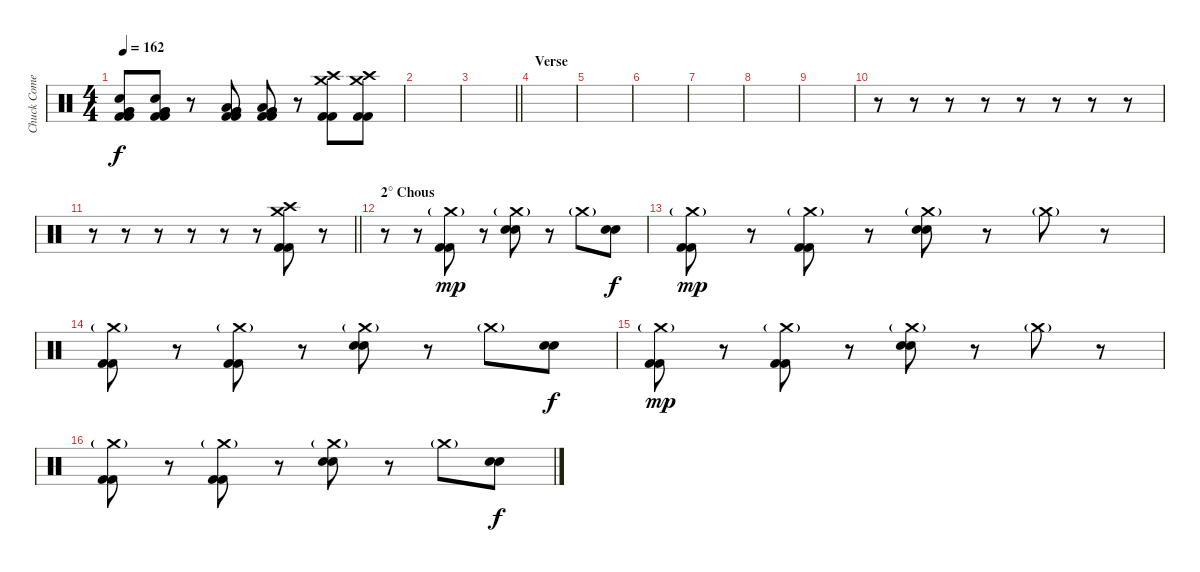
\track ("Chuck Comeau" "Chuck Come") {instrument percussion}
\staff {score}
\articulation defaults
\ts (4 4)
\tempo 162
\clef neutral
\ks c
("Very Low Tom (hit)" "Very Low Tom (hit)" "Snare (hit) 2" "Kick (hit) 2" "Kick (hit) 2").8{dy f} ("Very Low Tom (hit)" "Very Low Tom (hit)" "Snare (hit) 2" "Kick (hit) 2" "Kick (hit) 2").8 r.8 ("Very Low Tom (hit)" "Very Low Tom (hit)" "Low Floor Tom (hit)" "Kick (hit) 2" "Kick (hit) 2").8 ("Very Low Tom (hit)" "Very Low Tom (hit)" "Low Floor Tom (hit)" "Kick (hit) 2" "Kick (hit) 2").8 r.8 ("Crash medium (hit)" "Crash high (hit)" "Kick (hit) 2" "Kick (hit) 2").8 ("Crash medium (hit)" "Crash high (hit)" "Kick (hit) 2" "Kick (hit) 2").8 |
|
\barLineRight lightlight
|
\section ("" "Verse")
|
|
|
|
|
|
r.8 r.8 r.8 r.8 r.8 r.8 r.8 r.8 |
\barLineRight lightlight
r.8 r.8 r.8 r.8 r.8 r.8 ("Crash medium (hit)" "Crash high (hit)" "Kick (hit) 2" "Kick (hit) 2").8 r.8 |
\section ("" "2° Chous ")
r.8 r.8 ("Crash medium (hit)"{g} "Kick (hit) 2" "Kick (hit) 2").8{dy mp} r.8 ("Crash medium (hit)"{g} "Snare (hit) 2" "Snare (hit) 2").8 r.8 "Crash medium (hit)"{g}.8 ("Snare (hit) 2" "Snare (hit) 2").8{dy f} |
("Crash medium (hit)"{g} "Kick (hit) 2" "Kick (hit) 2").8{dy mp} r.8 ("Crash medium (hit)"{g} "Kick (hit) 2" "Kick (hit) 2").8 r.8 ("Crash medium (hit)"{g} "Snare (hit) 2" "Snare (hit) 2").8 r.8 "Crash medium (hit)"{g}.8 r.8 |
("Crash medium (hit)"{g} "Kick (hit) 2" "Kick (hit) 2").8 r.8 ("Crash medium (hit)"{g} "Kick (hit) 2" "Kick (hit) 2").8 r.8 ("Crash medium (hit)"{g} "Snare (hit) 2" "Snare (hit) 2").8 r.8 "Crash medium (hit)"{g}.8 ("Snare (hit) 2" "Snare (hit) 2").8{dy f} |
("Crash medium (hit)"{g} "Kick (hit) 2" "Kick (hit) 2").8{dy mp} r.8 ("Crash medium (hit)"{g} "Kick (hit) 2" "Kick (hit) 2").8 r.8 ("Crash medium (hit)"{g} "Snare (hit) 2" "Snare (hit) 2").8 r.8 "Crash medium (hit)"{g}.8 r.8 |
("Crash medium (hit)"{g} "Kick (hit) 2" "Kick (hit) 2").8 r.8 ("Crash medium (hit)"{g} "Kick (hit) 2" "Kick (hit) 2").8 r.8 ("Crash medium (hit)"{g} "Snare (hit) 2" "Snare (hit) 2").8 r.8 "Crash medium (hit)"{g}.8 ("Snare (hit) 2" "Snare (hit) 2").8{dy f}
